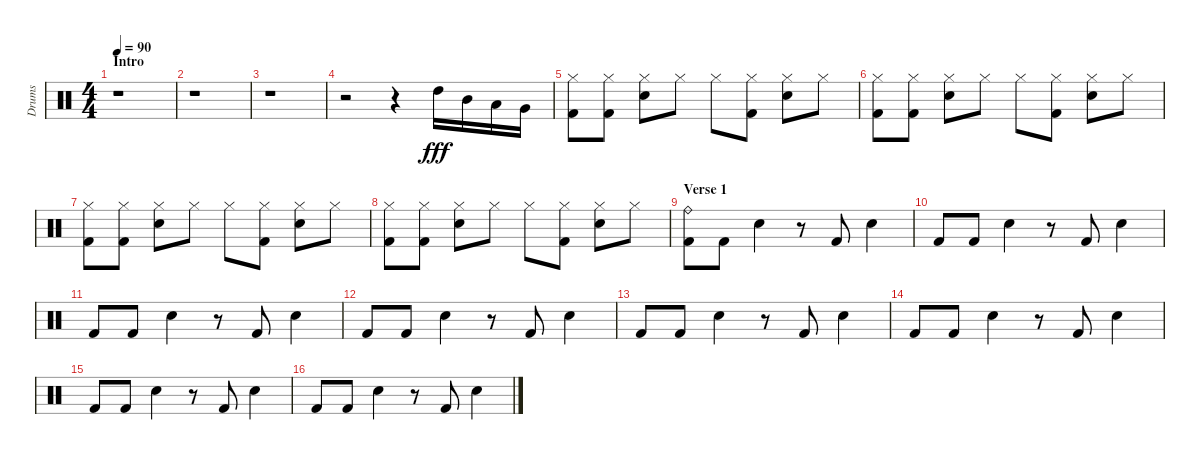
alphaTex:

\track ("Drums" "Drums") {instrument percussion}
\staff {score}
\articulation defaults
\ts (4 4)
\section ("" "Intro")
\tempo 90
\clef neutral
\ks c
r.1{dy fff} |
r.1 |
r.1 |
r.2 r.4 "High Tom (hit)".16 "Mid Tom (hit)".16 "Low Tom (hit)".16 "Very Low Tom (hit)".16 |
("Hi-Hat (closed)" "Kick (hit) 2").8 ("Hi-Hat (closed)" "Kick (hit) 2").8 ("Hi-Hat (closed)" "Electric Snare (hit)").8 "Hi-Hat (closed)".8 "Hi-Hat (closed)".8 ("Hi-Hat (closed)" "Kick (hit) 2").8 ("Hi-Hat (closed)" "Electric Snare (hit)").8 "Hi-Hat (closed)".8 |
("Hi-Hat (closed)" "Kick (hit) 2").8 ("Hi-Hat (closed)" "Kick (hit) 2").8 ("Hi-Hat (closed)" "Electric Snare (hit)").8 "Hi-Hat (closed)".8 "Hi-Hat (closed)".8 ("Hi-Hat (closed)" "Kick (hit) 2").8 ("Hi-Hat (closed)" "Electric Snare (hit)").8 "Hi-Hat (closed)".8 |
("Hi-Hat (closed)" "Kick (hit) 2").8 ("Hi-Hat (closed)" "Kick (hit) 2").8 ("Hi-Hat (closed)" "Electric Snare (hit)").8 "Hi-Hat (closed)".8 "Hi-Hat (closed)".8 ("Hi-Hat (closed)" "Kick (hit) 2").8 ("Hi-Hat (closed)" "Electric Snare (hit)").8 "Hi-Hat (closed)".8 |
("Hi-Hat (closed)" "Kick (hit) 2").8 ("Hi-Hat (closed)" "Kick (hit) 2").8 ("Hi-Hat (closed)" "Electric Snare (hit)").8 "Hi-Hat (closed)".8 "Hi-Hat (closed)".8 ("Hi-Hat (closed)" "Kick (hit) 2").8 ("Hi-Hat (closed)" "Electric Snare (hit)").8 "Hi-Hat (closed)".8 |
\section ("" "Verse 1")
("Ride (bell)" "Kick (hit) 2").8 "Kick (hit) 2".8 "Electric Snare (hit)".4 r.8 "Kick (hit) 2".8 "Electric Snare (hit)".4 |
"Kick (hit) 2".8 "Kick (hit) 2".8 "Electric Snare (hit)".4 r.8 "Kick (hit) 2".8 "Electric Snare (hit)".4 |
"Kick (hit) 2".8 "Kick (hit) 2".8 "Electric Snare (hit)".4 r.8 "Kick (hit) 2".8 "Electric Snare (hit)".4 |
"Kick (hit) 2".8 "Kick (hit) 2".8 "Electric Snare (hit)".4 r.8 "Kick (hit) 2".8 "Electric Snare (hit)".4 |
"Kick (hit) 2".8 "Kick (hit) 2".8 "Electric Snare (hit)".4 r.8 "Kick (hit) 2".8 "Electric Snare (hit)".4 |
"Kick (hit) 2".8 "Kick (hit) 2".8 "Electric Snare (hit)".4 r.8 "Kick (hit) 2".8 "Electric Snare (hit)".4 |
"Kick (hit) 2".8 "Kick (hit) 2".8 "Electric Snare (hit)".4 r.8 "Kick (hit) 2".8 "Electric Snare (hit)".4 |
"Kick (hit) 2".8 "Kick (hit) 2".8 "Electric Snare (hit)".4 r.8 "Kick (hit) 2".8 "Electric Snare (hit)".4
